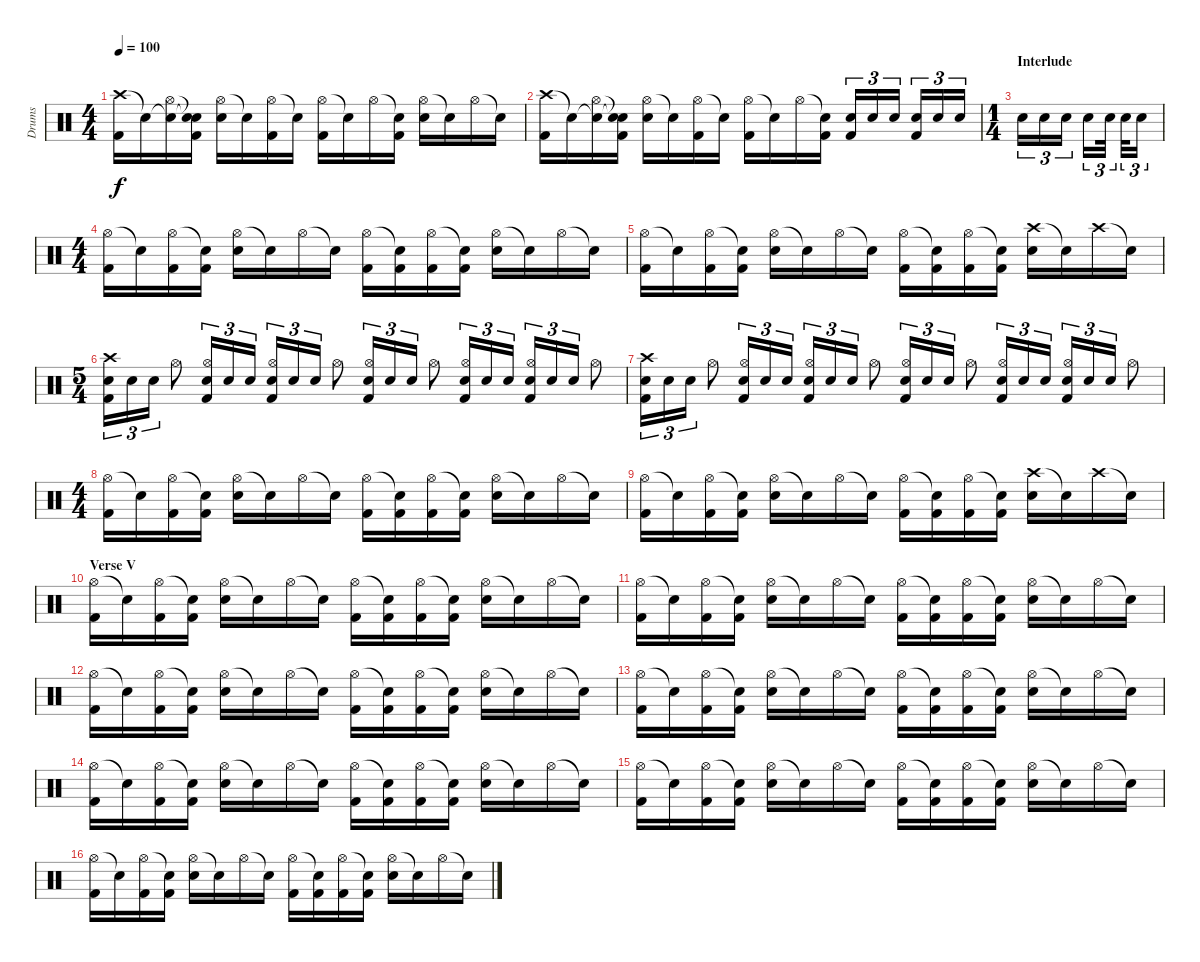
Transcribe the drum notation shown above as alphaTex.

\track ("Drums" "Drums") {instrument percussion}
\staff {score}
\articulation defaults
\ts (4 4)
\tempo 100
\clef neutral
\ks c
("Crash high (hit)" "Kick (hit) 2").16{dy f} "Snare (hit)"{t}.16 ("Snare (hit)"{t} "Hi-Hat (open)").16 ("Snare (hit)"{t} "Snare (hit)"{t} "Kick (hit) 2").16 ("Hi-Hat (open)" "Electric Snare (hit)").16 "Snare (hit)"{t}.16 ("Hi-Hat (open)" "Kick (hit) 2").16 "Snare (hit)"{t}.16 ("Hi-Hat (open)" "Kick (hit) 2").16 "Snare (hit)"{t}.16 "Hi-Hat (open)".16 ("Snare (hit)"{t} "Kick (hit) 2").16 ("Hi-Hat (open)" "Electric Snare (hit)").16 "Snare (hit)"{t}.16 "Hi-Hat (open)".16 "Snare (hit)"{t}.16 |
("Crash high (hit)" "Kick (hit) 2").16 "Snare (hit)"{t}.16 ("Snare (hit)"{t} "Hi-Hat (open)").16 ("Snare (hit)"{t} "Snare (hit)"{t} "Kick (hit) 2").16 ("Hi-Hat (open)" "Electric Snare (hit)").16 "Snare (hit)"{t}.16 ("Hi-Hat (open)" "Kick (hit) 2").16 "Snare (hit)"{t}.16 ("Hi-Hat (open)" "Kick (hit) 2").16 "Snare (hit)"{t}.16 "Hi-Hat (open)".16 ("Snare (hit)"{t} "Kick (hit) 2").16 ("Electric Snare (hit)" "Kick (hit) 2").16{tu (3 2)} "Electric Snare (hit)".16{tu (3 2)} "Electric Snare (hit)".16{tu (3 2)} ("Electric Snare (hit)" "Kick (hit) 2").16{tu (3 2)} "Electric Snare (hit)".16{tu (3 2)} "Electric Snare (hit)".16{tu (3 2)} |
\ts (1 4)
\section ("" "Interlude")
"Electric Snare (hit)".16{tu (3 2)} "Electric Snare (hit)".16{tu (3 2)} "Electric Snare (hit)".16{tu (3 2)} "Electric Snare (hit)".16{tu (3 2)} "Electric Snare (hit)".32{tu (3 2)} "Electric Snare (hit)".32{tu (3 2)} "Electric Snare (hit)".16{tu (3 2)} |
\ts (4 4)
("Hi-Hat (open)" "Kick (hit) 2").16 "Snare (hit)"{t}.16 ("Hi-Hat (open)" "Kick (hit) 2").16 ("Snare (hit)"{t} "Kick (hit) 2").16 ("Hi-Hat (open)" "Electric Snare (hit)").16 "Snare (hit)"{t}.16 "Hi-Hat (open)".16 "Snare (hit)"{t}.16 ("Hi-Hat (open)" "Kick (hit) 2").16 ("Snare (hit)"{t} "Kick (hit) 2").16 ("Hi-Hat (open)" "Kick (hit) 2").16 ("Snare (hit)"{t} "Kick (hit) 2").16 ("Hi-Hat (open)" "Electric Snare (hit)").16 "Snare (hit)"{t}.16 "Hi-Hat (open)".16 "Snare (hit)"{t}.16 |
("Hi-Hat (open)" "Kick (hit) 2").16 "Snare (hit)"{t}.16 ("Hi-Hat (open)" "Kick (hit) 2").16 ("Snare (hit)"{t} "Kick (hit) 2").16 ("Hi-Hat (open)" "Electric Snare (hit)").16 "Snare (hit)"{t}.16 "Hi-Hat (open)".16 "Snare (hit)"{t}.16 ("Hi-Hat (open)" "Kick (hit) 2").16 ("Snare (hit)"{t} "Kick (hit) 2").16 ("Hi-Hat (open)" "Kick (hit) 2").16 ("Snare (hit)"{t} "Kick (hit) 2").16 ("Crash high (hit)" "Electric Snare (hit)").16 "Snare (hit)"{t}.16 "Crash high (hit)".16 "Snare (hit)"{t}.16 |
\ts (5 4)
("Crash high (hit)" "Electric Snare (hit)" "Kick (hit) 2").16{tu (3 2)} "Electric Snare (hit)".16{tu (3 2)} "Electric Snare (hit)".16{tu (3 2)} "Hi-Hat (open)".8 ("Hi-Hat (open)" "Electric Snare (hit)" "Kick (hit) 2").16{tu (3 2)} "Electric Snare (hit)".16{tu (3 2)} "Electric Snare (hit)".16{tu (3 2)} ("Hi-Hat (open)" "Electric Snare (hit)" "Kick (hit) 2").16{tu (3 2)} "Electric Snare (hit)".16{tu (3 2)} "Electric Snare (hit)".16{tu (3 2)} "Hi-Hat (open)".8 ("Hi-Hat (open)" "Electric Snare (hit)" "Kick (hit) 2").16{tu (3 2)} "Electric Snare (hit)".16{tu (3 2)} "Electric Snare (hit)".16{tu (3 2)} "Hi-Hat (open)".8 ("Hi-Hat (open)" "Electric Snare (hit)" "Kick (hit) 2").16{tu (3 2)} "Electric Snare (hit)".16{tu (3 2)} "Electric Snare (hit)".16{tu (3 2)} ("Hi-Hat (open)" "Electric Snare (hit)" "Kick (hit) 2").16{tu (3 2)} "Electric Snare (hit)".16{tu (3 2)} "Electric Snare (hit)".16{tu (3 2)} "Hi-Hat (open)".8 |
("Crash high (hit)" "Electric Snare (hit)" "Kick (hit) 2").16{tu (3 2)} "Electric Snare (hit)".16{tu (3 2)} "Electric Snare (hit)".16{tu (3 2)} "Hi-Hat (open)".8 ("Hi-Hat (open)" "Electric Snare (hit)" "Kick (hit) 2").16{tu (3 2)} "Electric Snare (hit)".16{tu (3 2)} "Electric Snare (hit)".16{tu (3 2)} ("Hi-Hat (open)" "Electric Snare (hit)" "Kick (hit) 2").16{tu (3 2)} "Electric Snare (hit)".16{tu (3 2)} "Electric Snare (hit)".16{tu (3 2)} "Hi-Hat (open)".8 ("Hi-Hat (open)" "Electric Snare (hit)" "Kick (hit) 2").16{tu (3 2)} "Electric Snare (hit)".16{tu (3 2)} "Electric Snare (hit)".16{tu (3 2)} "Hi-Hat (open)".8 ("Hi-Hat (open)" "Electric Snare (hit)" "Kick (hit) 2").16{tu (3 2)} "Electric Snare (hit)".16{tu (3 2)} "Electric Snare (hit)".16{tu (3 2)} ("Hi-Hat (open)" "Electric Snare (hit)" "Kick (hit) 2").16{tu (3 2)} "Electric Snare (hit)".16{tu (3 2)} "Electric Snare (hit)".16{tu (3 2)} "Hi-Hat (open)".8 |
\ts (4 4)
("Hi-Hat (open)" "Kick (hit) 2").16 "Snare (hit)"{t}.16 ("Hi-Hat (open)" "Kick (hit) 2").16 ("Snare (hit)"{t} "Kick (hit) 2").16 ("Hi-Hat (open)" "Electric Snare (hit)").16 "Snare (hit)"{t}.16 "Hi-Hat (open)".16 "Snare (hit)"{t}.16 ("Hi-Hat (open)" "Kick (hit) 2").16 ("Snare (hit)"{t} "Kick (hit) 2").16 ("Hi-Hat (open)" "Kick (hit) 2").16 ("Snare (hit)"{t} "Kick (hit) 2").16 ("Hi-Hat (open)" "Electric Snare (hit)").16 "Snare (hit)"{t}.16 "Hi-Hat (open)".16 "Snare (hit)"{t}.16 |
("Hi-Hat (open)" "Kick (hit) 2").16 "Snare (hit)"{t}.16 ("Hi-Hat (open)" "Kick (hit) 2").16 ("Snare (hit)"{t} "Kick (hit) 2").16 ("Hi-Hat (open)" "Electric Snare (hit)").16 "Snare (hit)"{t}.16 "Hi-Hat (open)".16 "Snare (hit)"{t}.16 ("Hi-Hat (open)" "Kick (hit) 2").16 ("Snare (hit)"{t} "Kick (hit) 2").16 ("Hi-Hat (open)" "Kick (hit) 2").16 ("Snare (hit)"{t} "Kick (hit) 2").16 ("Crash high (hit)" "Electric Snare (hit)").16 "Snare (hit)"{t}.16 "Crash high (hit)".16 "Snare (hit)"{t}.16 |
\section ("" "Verse V")
("Hi-Hat (open)" "Kick (hit) 2").16 "Snare (hit)"{t}.16 ("Hi-Hat (open)" "Kick (hit) 2").16 ("Snare (hit)"{t} "Kick (hit) 2").16 ("Hi-Hat (open)" "Electric Snare (hit)").16 "Snare (hit)"{t}.16 "Hi-Hat (open)".16 "Snare (hit)"{t}.16 ("Hi-Hat (open)" "Kick (hit) 2").16 ("Snare (hit)"{t} "Kick (hit) 2").16 ("Hi-Hat (open)" "Kick (hit) 2").16 ("Snare (hit)"{t} "Kick (hit) 2").16 ("Hi-Hat (open)" "Electric Snare (hit)").16 "Snare (hit)"{t}.16 "Hi-Hat (open)".16 "Snare (hit)"{t}.16 |
("Hi-Hat (open)" "Kick (hit) 2").16 "Snare (hit)"{t}.16 ("Hi-Hat (open)" "Kick (hit) 2").16 ("Snare (hit)"{t} "Kick (hit) 2").16 ("Hi-Hat (open)" "Electric Snare (hit)").16 "Snare (hit)"{t}.16 "Hi-Hat (open)".16 "Snare (hit)"{t}.16 ("Hi-Hat (open)" "Kick (hit) 2").16 ("Snare (hit)"{t} "Kick (hit) 2").16 ("Hi-Hat (open)" "Kick (hit) 2").16 ("Snare (hit)"{t} "Kick (hit) 2").16 ("Hi-Hat (open)" "Electric Snare (hit)").16 "Snare (hit)"{t}.16 "Hi-Hat (open)".16 "Snare (hit)"{t}.16 |
("Hi-Hat (open)" "Kick (hit) 2").16 "Snare (hit)"{t}.16 ("Hi-Hat (open)" "Kick (hit) 2").16 ("Snare (hit)"{t} "Kick (hit) 2").16 ("Hi-Hat (open)" "Electric Snare (hit)").16 "Snare (hit)"{t}.16 "Hi-Hat (open)".16 "Snare (hit)"{t}.16 ("Hi-Hat (open)" "Kick (hit) 2").16 ("Snare (hit)"{t} "Kick (hit) 2").16 ("Hi-Hat (open)" "Kick (hit) 2").16 ("Snare (hit)"{t} "Kick (hit) 2").16 ("Hi-Hat (open)" "Electric Snare (hit)").16 "Snare (hit)"{t}.16 "Hi-Hat (open)".16 "Snare (hit)"{t}.16 |
("Hi-Hat (open)" "Kick (hit) 2").16 "Snare (hit)"{t}.16 ("Hi-Hat (open)" "Kick (hit) 2").16 ("Snare (hit)"{t} "Kick (hit) 2").16 ("Hi-Hat (open)" "Electric Snare (hit)").16 "Snare (hit)"{t}.16 "Hi-Hat (open)".16 "Snare (hit)"{t}.16 ("Hi-Hat (open)" "Kick (hit) 2").16 ("Snare (hit)"{t} "Kick (hit) 2").16 ("Hi-Hat (open)" "Kick (hit) 2").16 ("Snare (hit)"{t} "Kick (hit) 2").16 ("Hi-Hat (open)" "Electric Snare (hit)").16 "Snare (hit)"{t}.16 "Hi-Hat (open)".16 "Snare (hit)"{t}.16 |
("Hi-Hat (open)" "Kick (hit) 2").16 "Snare (hit)"{t}.16 ("Hi-Hat (open)" "Kick (hit) 2").16 ("Snare (hit)"{t} "Kick (hit) 2").16 ("Hi-Hat (open)" "Electric Snare (hit)").16 "Snare (hit)"{t}.16 "Hi-Hat (open)".16 "Snare (hit)"{t}.16 ("Hi-Hat (open)" "Kick (hit) 2").16 ("Snare (hit)"{t} "Kick (hit) 2").16 ("Hi-Hat (open)" "Kick (hit) 2").16 ("Snare (hit)"{t} "Kick (hit) 2").16 ("Hi-Hat (open)" "Electric Snare (hit)").16 "Snare (hit)"{t}.16 "Hi-Hat (open)".16 "Snare (hit)"{t}.16 |
("Hi-Hat (open)" "Kick (hit) 2").16 "Snare (hit)"{t}.16 ("Hi-Hat (open)" "Kick (hit) 2").16 ("Snare (hit)"{t} "Kick (hit) 2").16 ("Hi-Hat (open)" "Electric Snare (hit)").16 "Snare (hit)"{t}.16 "Hi-Hat (open)".16 "Snare (hit)"{t}.16 ("Hi-Hat (open)" "Kick (hit) 2").16 ("Snare (hit)"{t} "Kick (hit) 2").16 ("Hi-Hat (open)" "Kick (hit) 2").16 ("Snare (hit)"{t} "Kick (hit) 2").16 ("Hi-Hat (open)" "Electric Snare (hit)").16 "Snare (hit)"{t}.16 "Hi-Hat (open)".16 "Snare (hit)"{t}.16 |
("Hi-Hat (open)" "Kick (hit) 2").16 "Snare (hit)"{t}.16 ("Hi-Hat (open)" "Kick (hit) 2").16 ("Snare (hit)"{t} "Kick (hit) 2").16 ("Hi-Hat (open)" "Electric Snare (hit)").16 "Snare (hit)"{t}.16 "Hi-Hat (open)".16 "Snare (hit)"{t}.16 ("Hi-Hat (open)" "Kick (hit) 2").16 ("Snare (hit)"{t} "Kick (hit) 2").16 ("Hi-Hat (open)" "Kick (hit) 2").16 ("Snare (hit)"{t} "Kick (hit) 2").16 ("Hi-Hat (open)" "Electric Snare (hit)").16 "Snare (hit)"{t}.16 "Hi-Hat (open)".16 "Snare (hit)"{t}.16
